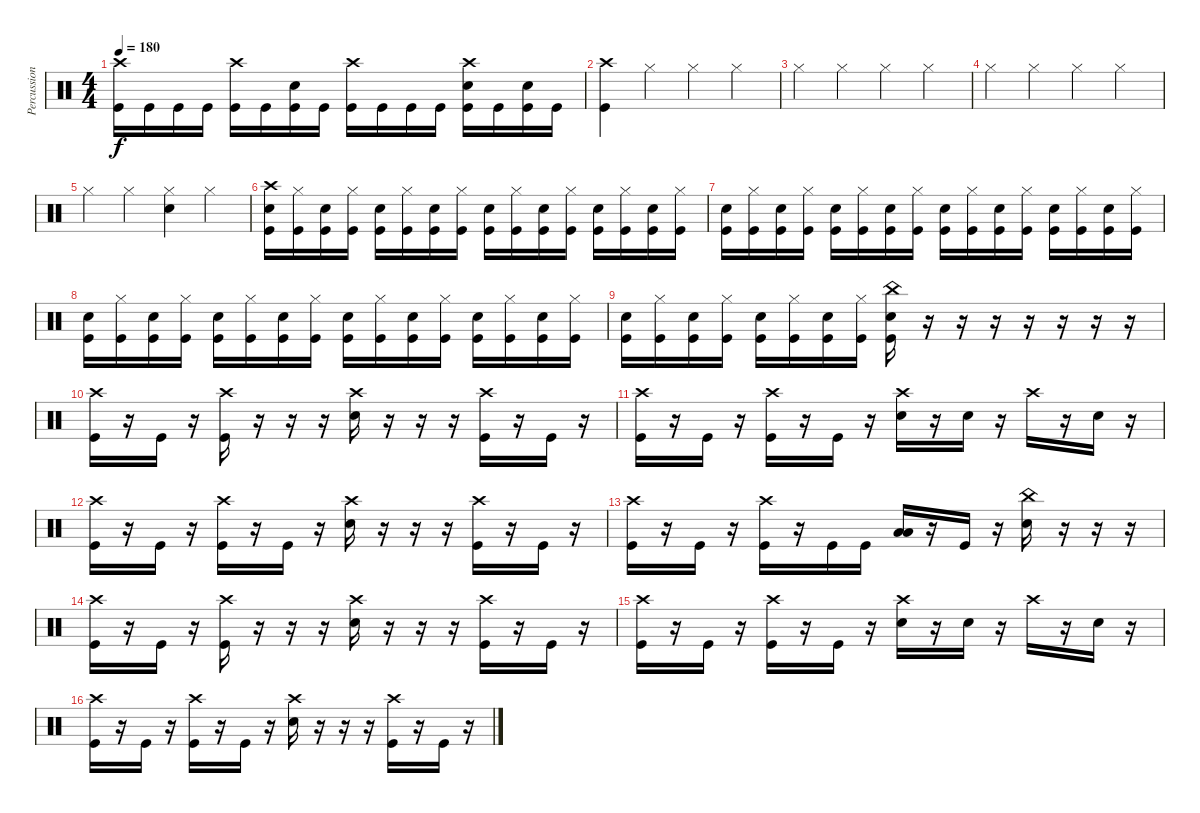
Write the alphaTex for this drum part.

\track ("Percussion" "Percussion") {instrument percussion}
\staff {score}
\articulation defaults
\ts (4 4)
\tempo 180
\clef neutral
\ks c
("Crash high (hit)" "Kick (hit)").16{dy f} "Kick (hit)".16 "Kick (hit)".16 "Kick (hit)".16 ("Crash high (hit)" "Kick (hit)").16 "Kick (hit)".16 ("Kick (hit)" "Electric Snare (hit)").16 "Kick (hit)".16 ("Crash high (hit)" "Kick (hit)").16 "Kick (hit)".16 "Kick (hit)".16 "Kick (hit)".16 ("Crash high (hit)" "Kick (hit)" "Electric Snare (hit)").16 "Kick (hit)".16 ("Kick (hit)" "Electric Snare (hit)").16 "Kick (hit)".16 |
("Crash high (hit)" "Kick (hit)").4 "Hi-Hat (closed)".4 "Hi-Hat (closed)".4 "Hi-Hat (closed)".4 |
"Hi-Hat (closed)".4 "Hi-Hat (closed)".4 "Hi-Hat (closed)".4 "Hi-Hat (closed)".4 |
"Hi-Hat (closed)".4 "Hi-Hat (closed)".4 "Hi-Hat (closed)".4 "Hi-Hat (closed)".4 |
"Hi-Hat (closed)".4 "Hi-Hat (closed)".4 ("Hi-Hat (closed)" "Electric Snare (hit)").4 "Hi-Hat (closed)".4 |
("Crash high (hit)" "Electric Snare (hit)" "Kick (hit)").16 ("Hi-Hat (closed)" "Kick (hit)").16 ("Electric Snare (hit)" "Kick (hit)").16 ("Hi-Hat (closed)" "Kick (hit)").16 ("Electric Snare (hit)" "Kick (hit)").16 ("Hi-Hat (closed)" "Kick (hit)").16 ("Electric Snare (hit)" "Kick (hit)").16 ("Hi-Hat (closed)" "Kick (hit)").16 ("Electric Snare (hit)" "Kick (hit)").16 ("Hi-Hat (closed)" "Kick (hit)").16 ("Electric Snare (hit)" "Kick (hit)").16 ("Hi-Hat (closed)" "Kick (hit)").16 ("Electric Snare (hit)" "Kick (hit)").16 ("Hi-Hat (closed)" "Kick (hit)").16 ("Electric Snare (hit)" "Kick (hit)").16 ("Hi-Hat (closed)" "Kick (hit)").16 |
("Electric Snare (hit)" "Kick (hit)").16 ("Hi-Hat (closed)" "Kick (hit)").16 ("Electric Snare (hit)" "Kick (hit)").16 ("Hi-Hat (closed)" "Kick (hit)").16 ("Electric Snare (hit)" "Kick (hit)").16 ("Hi-Hat (closed)" "Kick (hit)").16 ("Electric Snare (hit)" "Kick (hit)").16 ("Hi-Hat (closed)" "Kick (hit)").16 ("Electric Snare (hit)" "Kick (hit)").16 ("Hi-Hat (closed)" "Kick (hit)").16 ("Electric Snare (hit)" "Kick (hit)").16 ("Hi-Hat (closed)" "Kick (hit)").16 ("Electric Snare (hit)" "Kick (hit)").16 ("Hi-Hat (closed)" "Kick (hit)").16 ("Electric Snare (hit)" "Kick (hit)").16 ("Hi-Hat (closed)" "Kick (hit)").16 |
("Electric Snare (hit)" "Kick (hit)").16 ("Hi-Hat (closed)" "Kick (hit)").16 ("Electric Snare (hit)" "Kick (hit)").16 ("Hi-Hat (closed)" "Kick (hit)").16 ("Electric Snare (hit)" "Kick (hit)").16 ("Hi-Hat (closed)" "Kick (hit)").16 ("Electric Snare (hit)" "Kick (hit)").16 ("Hi-Hat (closed)" "Kick (hit)").16 ("Electric Snare (hit)" "Kick (hit)").16 ("Hi-Hat (closed)" "Kick (hit)").16 ("Electric Snare (hit)" "Kick (hit)").16 ("Hi-Hat (closed)" "Kick (hit)").16 ("Electric Snare (hit)" "Kick (hit)").16 ("Hi-Hat (closed)" "Kick (hit)").16 ("Electric Snare (hit)" "Kick (hit)").16 ("Hi-Hat (closed)" "Kick (hit)").16 |
("Electric Snare (hit)" "Kick (hit)").16 ("Hi-Hat (closed)" "Kick (hit)").16 ("Electric Snare (hit)" "Kick (hit)").16 ("Hi-Hat (closed)" "Kick (hit)").16 ("Electric Snare (hit)" "Kick (hit)").16 ("Hi-Hat (closed)" "Kick (hit)").16 ("Electric Snare (hit)" "Kick (hit)").16 ("Hi-Hat (closed)" "Kick (hit)").16 ("China (hit)" "Electric Snare (hit)" "Kick (hit)").16 r.16 r.16 r.16 r.16 r.16 r.16 r.16 |
("Crash high (hit)" "Kick (hit)").16 r.16 "Kick (hit)".16 r.16 ("Crash high (hit)" "Kick (hit)").16 r.16 r.16 r.16 ("Crash high (hit)" "Electric Snare (hit)").16 r.16 r.16 r.16 ("Crash high (hit)" "Kick (hit)").16 r.16 "Kick (hit)".16 r.16 |
("Crash high (hit)" "Kick (hit)").16 r.16 "Kick (hit)".16 r.16 ("Crash high (hit)" "Kick (hit)").16 r.16 "Kick (hit)".16 r.16 ("Crash high (hit)" "Electric Snare (hit)").16 r.16 "Electric Snare (hit)".16 r.16 "Crash high (hit)".16 r.16 "Electric Snare (hit)".16 r.16 |
("Crash high (hit)" "Kick (hit)").16 r.16 "Kick (hit)".16 r.16 ("Crash high (hit)" "Kick (hit)").16 r.16 "Kick (hit)".16 r.16 ("Crash high (hit)" "Electric Snare (hit)").16 r.16 r.16 r.16 ("Crash high (hit)" "Kick (hit)").16 r.16 "Kick (hit)".16 r.16 |
("Crash high (hit)" "Kick (hit)").16 r.16 "Kick (hit)".16 r.16 ("Crash high (hit)" "Kick (hit)").16 r.16 "Kick (hit)".16 "Kick (hit)".16 ("Low Tom (hit)" "Low Floor Tom (hit)").16 r.16 "Kick (hit)".16 r.16 ("China (hit)" "Electric Snare (hit)").16 r.16 r.16 r.16 |
("Crash high (hit)" "Kick (hit)").16 r.16 "Kick (hit)".16 r.16 ("Crash high (hit)" "Kick (hit)").16 r.16 r.16 r.16 ("Crash high (hit)" "Electric Snare (hit)").16 r.16 r.16 r.16 ("Crash high (hit)" "Kick (hit)").16 r.16 "Kick (hit)".16 r.16 |
("Crash high (hit)" "Kick (hit)").16 r.16 "Kick (hit)".16 r.16 ("Crash high (hit)" "Kick (hit)").16 r.16 "Kick (hit)".16 r.16 ("Crash high (hit)" "Electric Snare (hit)").16 r.16 "Electric Snare (hit)".16 r.16 "Crash high (hit)".16 r.16 "Electric Snare (hit)".16 r.16 |
("Crash high (hit)" "Kick (hit)").16 r.16 "Kick (hit)".16 r.16 ("Crash high (hit)" "Kick (hit)").16 r.16 "Kick (hit)".16 r.16 ("Crash high (hit)" "Electric Snare (hit)").16 r.16 r.16 r.16 ("Crash high (hit)" "Kick (hit)").16 r.16 "Kick (hit)".16 r.16
